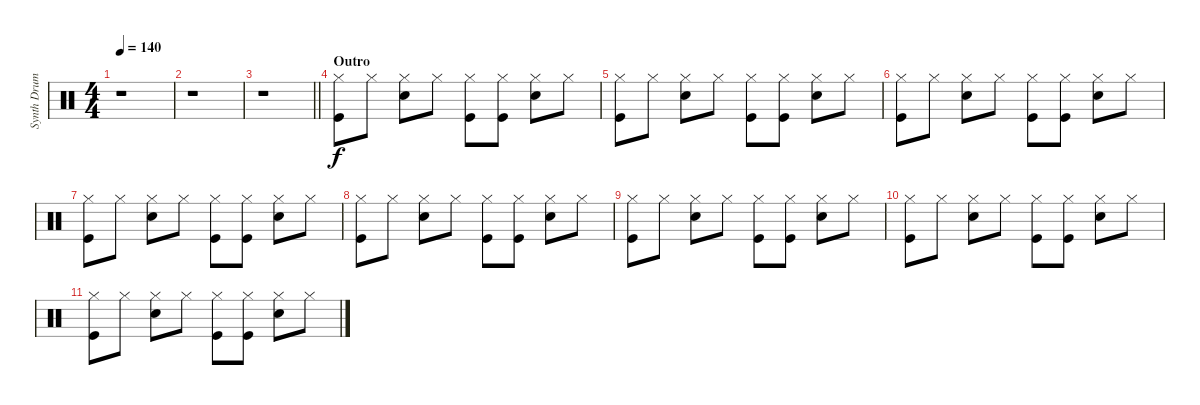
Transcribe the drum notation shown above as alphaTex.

\track ("Synth Drums" "Synth Drum") {instrument percussion}
\staff {score}
\articulation defaults
\ts (4 4)
\tempo 140
\clef neutral
\ks c
r.1{dy f} |
r.1 |
\barLineRight lightlight
r.1 |
\section ("" "Outro")
("Hi-Hat (closed)" "Kick (hit)").8 "Hi-Hat (closed)".8 ("Hi-Hat (closed)" "Snare (hit) 2").8 "Hi-Hat (closed)".8 ("Hi-Hat (closed)" "Kick (hit)").8 ("Hi-Hat (closed)" "Kick (hit)").8 ("Hi-Hat (closed)" "Snare (hit) 2").8 "Hi-Hat (closed)".8 |
("Hi-Hat (closed)" "Kick (hit)").8 "Hi-Hat (closed)".8 ("Hi-Hat (closed)" "Snare (hit) 2").8 "Hi-Hat (closed)".8 ("Hi-Hat (closed)" "Kick (hit)").8 ("Hi-Hat (closed)" "Kick (hit)").8 ("Hi-Hat (closed)" "Snare (hit) 2").8 "Hi-Hat (closed)".8 |
("Hi-Hat (closed)" "Kick (hit)").8 "Hi-Hat (closed)".8 ("Hi-Hat (closed)" "Snare (hit) 2").8 "Hi-Hat (closed)".8 ("Hi-Hat (closed)" "Kick (hit)").8 ("Hi-Hat (closed)" "Kick (hit)").8 ("Hi-Hat (closed)" "Snare (hit) 2").8 "Hi-Hat (closed)".8 |
("Hi-Hat (closed)" "Kick (hit)").8 "Hi-Hat (closed)".8 ("Hi-Hat (closed)" "Snare (hit) 2").8 "Hi-Hat (closed)".8 ("Hi-Hat (closed)" "Kick (hit)").8 ("Hi-Hat (closed)" "Kick (hit)").8 ("Hi-Hat (closed)" "Snare (hit) 2").8 "Hi-Hat (closed)".8 |
("Hi-Hat (closed)" "Kick (hit)").8 "Hi-Hat (closed)".8 ("Hi-Hat (closed)" "Snare (hit) 2").8 "Hi-Hat (closed)".8 ("Hi-Hat (closed)" "Kick (hit)").8 ("Hi-Hat (closed)" "Kick (hit)").8 ("Hi-Hat (closed)" "Snare (hit) 2").8 "Hi-Hat (closed)".8 |
("Hi-Hat (closed)" "Kick (hit)").8 "Hi-Hat (closed)".8 ("Hi-Hat (closed)" "Snare (hit) 2").8 "Hi-Hat (closed)".8 ("Hi-Hat (closed)" "Kick (hit)").8 ("Hi-Hat (closed)" "Kick (hit)").8 ("Hi-Hat (closed)" "Snare (hit) 2").8 "Hi-Hat (closed)".8 |
("Hi-Hat (closed)" "Kick (hit)").8 "Hi-Hat (closed)".8 ("Hi-Hat (closed)" "Snare (hit) 2").8 "Hi-Hat (closed)".8 ("Hi-Hat (closed)" "Kick (hit)").8 ("Hi-Hat (closed)" "Kick (hit)").8 ("Hi-Hat (closed)" "Snare (hit) 2").8 "Hi-Hat (closed)".8 |
("Hi-Hat (closed)" "Kick (hit)").8 "Hi-Hat (closed)".8 ("Hi-Hat (closed)" "Snare (hit) 2").8 "Hi-Hat (closed)".8 ("Hi-Hat (closed)" "Kick (hit)").8 ("Hi-Hat (closed)" "Kick (hit)").8 ("Hi-Hat (closed)" "Snare (hit) 2").8 "Hi-Hat (closed)".8
